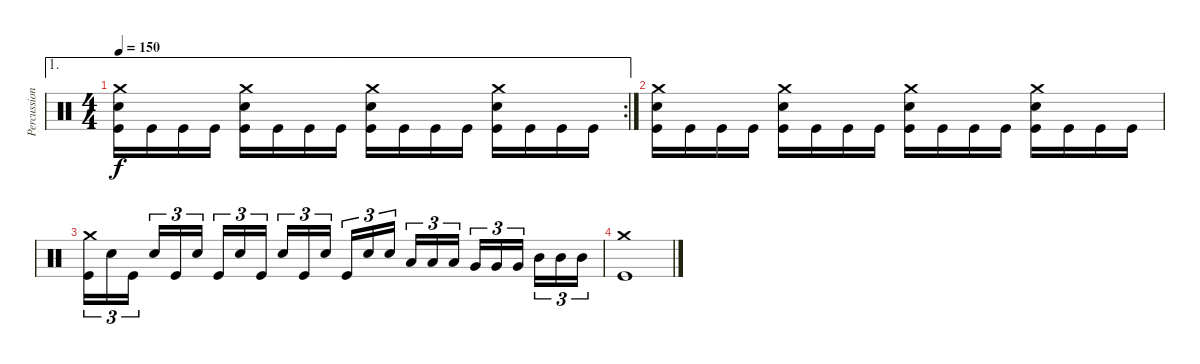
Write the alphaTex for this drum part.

\track ("Percussion" "Percussion") {instrument percussion}
\staff {score}
\articulation defaults
\ae 1
\rc 2
\ts (4 4)
\tempo 150
\clef neutral
\ks c
("Crash medium (hit)" "Electric Snare (hit)" "Kick (hit)").16{dy f} "Kick (hit)".16 "Kick (hit)".16 "Kick (hit)".16 ("Crash medium (hit)" "Electric Snare (hit)" "Kick (hit)").16 "Kick (hit)".16 "Kick (hit)".16 "Kick (hit)".16 ("Crash medium (hit)" "Electric Snare (hit)" "Kick (hit)").16 "Kick (hit)".16 "Kick (hit)".16 "Kick (hit)".16 ("Crash medium (hit)" "Electric Snare (hit)" "Kick (hit)").16 "Kick (hit)".16 "Kick (hit)".16 "Kick (hit)".16 |
("Crash medium (hit)" "Electric Snare (hit)" "Kick (hit)").16 "Kick (hit)".16 "Kick (hit)".16 "Kick (hit)".16 ("Crash medium (hit)" "Electric Snare (hit)" "Kick (hit)").16 "Kick (hit)".16 "Kick (hit)".16 "Kick (hit)".16 ("Crash medium (hit)" "Electric Snare (hit)" "Kick (hit)").16 "Kick (hit)".16 "Kick (hit)".16 "Kick (hit)".16 ("Crash medium (hit)" "Electric Snare (hit)" "Kick (hit)").16 "Kick (hit)".16 "Kick (hit)".16 "Kick (hit)".16 |
("Crash medium (hit)" "Kick (hit)").16{tu (3 2)} "Electric Snare (hit)".16{tu (3 2)} "Kick (hit)".16{tu (3 2) beam splitsecondary} "Electric Snare (hit)".16{tu (3 2)} "Kick (hit)".16{tu (3 2)} "Electric Snare (hit)".16{tu (3 2)} "Kick (hit)".16{tu (3 2)} "Electric Snare (hit)".16{tu (3 2)} "Kick (hit)".16{tu (3 2) beam splitsecondary} "Electric Snare (hit)".16{tu (3 2)} "Kick (hit)".16{tu (3 2)} "Electric Snare (hit)".16{tu (3 2)} "Kick (hit)".16{tu (3 2)} "Electric Snare (hit)".16{tu (3 2)} "Electric Snare (hit)".16{tu (3 2) beam splitsecondary} "Low Tom (hit)".16{tu (3 2)} "Low Tom (hit)".16{tu (3 2)} "Low Tom (hit)".16{tu (3 2)} "Very Low Tom (hit)".16{tu (3 2)} "Very Low Tom (hit)".16{tu (3 2)} "Very Low Tom (hit)".16{tu (3 2) beam splitsecondary} "Mid Tom (hit)".16{tu (3 2)} "Mid Tom (hit)".16{tu (3 2)} "Mid Tom (hit)".16{tu (3 2)} |
("Crash medium (hit)" "Kick (hit)").1
